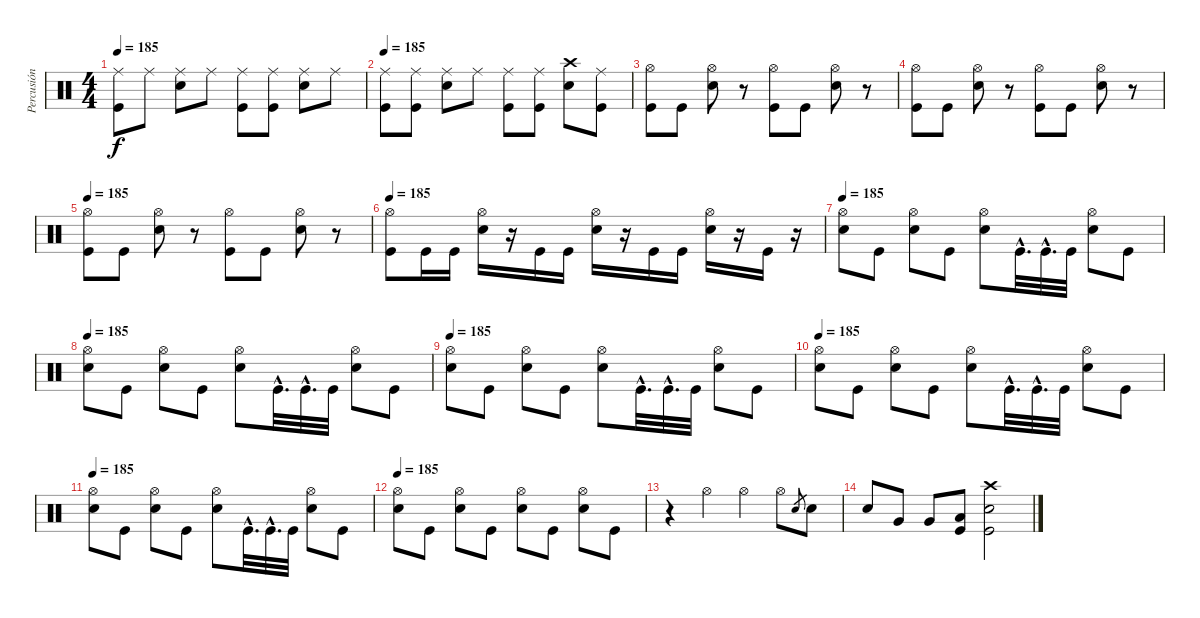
\track ("Percusión" "Percusión") {instrument percussion}
\staff {score}
\articulation defaults
\ts (4 4)
\tempo 185
\clef neutral
\ks c
("Ride (middle)" "Kick (hit)").8{dy f} "Ride (middle)".8 ("Ride (middle)" "Electric Snare (hit)").8 "Ride (middle)".8 ("Ride (middle)" "Kick (hit)").8 ("Ride (middle)" "Kick (hit)").8 ("Ride (middle)" "Electric Snare (hit)").8 "Ride (middle)".8 |
\tempo 185
("Ride (middle)" "Kick (hit)").8 ("Ride (middle)" "Kick (hit)").8 ("Ride (middle)" "Electric Snare (hit)").8 "Ride (middle)".8 ("Ride (middle)" "Kick (hit)").8 ("Ride (middle)" "Kick (hit)").8 ("Crash high (hit)" "Electric Snare (hit)").8 ("Ride (middle)" "Kick (hit)").8 |
("Hi-Hat (open)" "Kick (hit)").8 "Kick (hit)".8 ("Hi-Hat (open)" "Electric Snare (hit)").8 r.8 ("Hi-Hat (open)" "Kick (hit)").8 "Kick (hit)".8 ("Hi-Hat (open)" "Electric Snare (hit)").8 r.8 |
("Hi-Hat (open)" "Kick (hit)").8 "Kick (hit)".8 ("Hi-Hat (open)" "Electric Snare (hit)").8 r.8 ("Hi-Hat (open)" "Kick (hit)").8 "Kick (hit)".8 ("Hi-Hat (open)" "Electric Snare (hit)").8 r.8 |
\tempo 185
("Hi-Hat (open)" "Kick (hit)").8 "Kick (hit)".8 ("Hi-Hat (open)" "Electric Snare (hit)").8 r.8 ("Hi-Hat (open)" "Kick (hit)").8 "Kick (hit)".8 ("Hi-Hat (open)" "Electric Snare (hit)").8 r.8 |
\tempo 185
("Hi-Hat (open)" "Kick (hit)").8 "Kick (hit)".16 "Kick (hit)".16 ("Hi-Hat (open)" "Electric Snare (hit)").16 r.16 "Kick (hit)".16 "Kick (hit)".16 ("Hi-Hat (open)" "Electric Snare (hit)").16 r.16 "Kick (hit)".16 "Kick (hit)".16 ("Hi-Hat (open)" "Electric Snare (hit)").16 r.16 "Kick (hit)".16 r.16 |
\tempo 185
("Hi-Hat (open)" "Electric Snare (hit)").8 "Kick (hit)".8 ("Hi-Hat (open)" "Electric Snare (hit)").8 "Kick (hit)".8 ("Hi-Hat (open)" "Electric Snare (hit)").8 "Kick (hit)"{hac}.32{d} "Kick (hit)"{hac}.32{d} "Kick (hit)".32 ("Hi-Hat (open)" "Electric Snare (hit)").8 "Kick (hit)".8 |
\tempo 185
("Hi-Hat (open)" "Electric Snare (hit)").8 "Kick (hit)".8 ("Hi-Hat (open)" "Electric Snare (hit)").8 "Kick (hit)".8 ("Hi-Hat (open)" "Electric Snare (hit)").8 "Kick (hit)"{hac}.32{d} "Kick (hit)"{hac}.32{d} "Kick (hit)".32 ("Hi-Hat (open)" "Electric Snare (hit)").8 "Kick (hit)".8 |
\tempo 185
("Hi-Hat (open)" "Electric Snare (hit)").8 "Kick (hit)".8 ("Hi-Hat (open)" "Electric Snare (hit)").8 "Kick (hit)".8 ("Hi-Hat (open)" "Electric Snare (hit)").8 "Kick (hit)"{hac}.32{d} "Kick (hit)"{hac}.32{d} "Kick (hit)".32 ("Hi-Hat (open)" "Electric Snare (hit)").8 "Kick (hit)".8 |
\tempo 185
("Hi-Hat (open)" "Electric Snare (hit)").8 "Kick (hit)".8 ("Hi-Hat (open)" "Electric Snare (hit)").8 "Kick (hit)".8 ("Hi-Hat (open)" "Electric Snare (hit)").8 "Kick (hit)"{hac}.32{d} "Kick (hit)"{hac}.32{d} "Kick (hit)".32 ("Hi-Hat (open)" "Electric Snare (hit)").8 "Kick (hit)".8 |
\tempo 185
("Hi-Hat (open)" "Electric Snare (hit)").8 "Kick (hit)".8 ("Hi-Hat (open)" "Electric Snare (hit)").8 "Kick (hit)".8 ("Hi-Hat (open)" "Electric Snare (hit)").8 "Kick (hit)"{hac}.32{d} "Kick (hit)"{hac}.32{d} "Kick (hit)".32 ("Hi-Hat (open)" "Electric Snare (hit)").8 "Kick (hit)".8 |
\tempo 185
("Hi-Hat (open)" "Electric Snare (hit)").8 "Kick (hit)".8 ("Hi-Hat (open)" "Electric Snare (hit)").8 "Kick (hit)".8 ("Hi-Hat (open)" "Electric Snare (hit)").8 "Kick (hit)".8 ("Hi-Hat (open)" "Electric Snare (hit)").8 "Kick (hit)".8 |
r.4 "Hi-Hat (open)".4 "Hi-Hat (open)".4 "Hi-Hat (open)".8 "Electric Snare (hit)".8{gr} "Electric Snare (hit)".8 |
"Electric Snare (hit)".8 "Very Low Tom (hit)".8 "Very Low Tom (hit)".8 ("Low Floor Tom (hit)" "Kick (hit)").8 ("Crash high (hit)" "Electric Snare (hit)" "Kick (hit)").2
